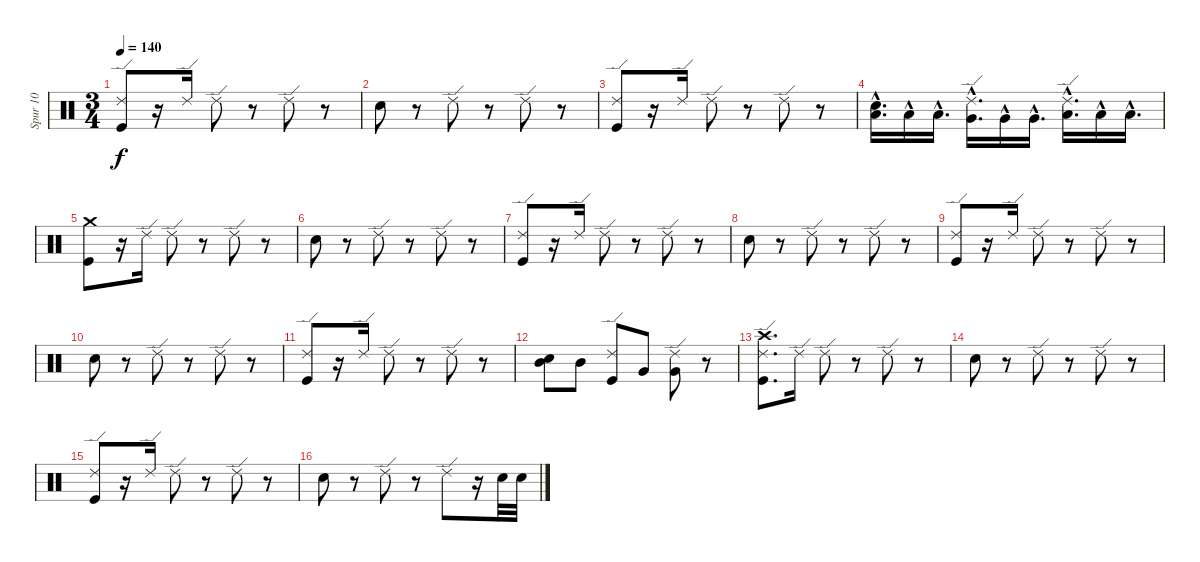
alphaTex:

\track ("Spur 10" "Spur 10") {instrument percussion}
\staff {score}
\articulation defaults
\ts (3 4)
\tempo 140
\clef neutral
\ks c
("Ride (edge) 2" "Kick (hit)").8{dy f} r.16 "Ride (edge) 2".16 "Ride (edge) 2".8 r.8 "Ride (edge) 2".8 r.8 |
"Snare (hit) 2".8 r.8 "Ride (edge) 2".8 r.8 "Ride (edge) 2".8 r.8 |
("Ride (edge) 2" "Kick (hit)").8 r.16 "Ride (edge) 2".16 "Ride (edge) 2".8 r.8 "Ride (edge) 2".8 r.8 |
("Low Tom (hit)"{hac} "Snare (hit) 2").16{d} "Low Tom (hit)"{hac}.16 "Low Tom (hit)"{hac}.16{d} ("Very Low Tom (hit)"{hac} "Ride (edge) 2").16{d} "Very Low Tom (hit)"{hac}.16 "Very Low Tom (hit)"{hac}.16{d} ("Low Floor Tom (hit)"{hac} "Ride (edge) 2").16{d} "Low Floor Tom (hit)"{hac}.16 "Low Floor Tom (hit)"{hac}.16{d} |
("Kick (hit)" "Crash medium (hit)").8 r.16 "Ride (edge) 2".16 "Ride (edge) 2".8 r.8 "Ride (edge) 2".8 r.8 |
"Snare (hit) 2".8 r.8 "Ride (edge) 2".8 r.8 "Ride (edge) 2".8 r.8 |
("Ride (edge) 2" "Kick (hit)").8 r.16 "Ride (edge) 2".16 "Ride (edge) 2".8 r.8 "Ride (edge) 2".8 r.8 |
"Snare (hit) 2".8 r.8 "Ride (edge) 2".8 r.8 "Ride (edge) 2".8 r.8 |
("Ride (edge) 2" "Kick (hit)").8 r.16 "Ride (edge) 2".16 "Ride (edge) 2".8 r.8 "Ride (edge) 2".8 r.8 |
"Snare (hit) 2".8 r.8 "Ride (edge) 2".8 r.8 "Ride (edge) 2".8 r.8 |
("Ride (edge) 2" "Kick (hit)").8 r.16 "Ride (edge) 2".16 "Ride (edge) 2".8 r.8 "Ride (edge) 2".8 r.8 |
("Snare (hit) 2" "Mid Tom (hit)").8 "Mid Tom (hit)".8 ("Kick (hit)" "Ride (edge) 2").8 "Very Low Tom (hit)".8 ("Very Low Tom (hit)" "Ride (edge) 2").8 r.8 |
("Crash high (hit)" "Ride (edge) 2" "Kick (hit)").8{d} "Ride (edge) 2".16 "Ride (edge) 2".8 r.8 "Ride (edge) 2".8 r.8 |
"Snare (hit) 2".8 r.8 "Ride (edge) 2".8 r.8 "Ride (edge) 2".8 r.8 |
("Ride (edge) 2" "Kick (hit)").8 r.16 "Ride (edge) 2".16 "Ride (edge) 2".8 r.8 "Ride (edge) 2".8 r.8 |
"Snare (hit) 2".8 r.8 "Ride (edge) 2".8 r.8 "Ride (edge) 2".8 r.16 "Electric Snare (hit)".32 "Snare (hit) 2".32
